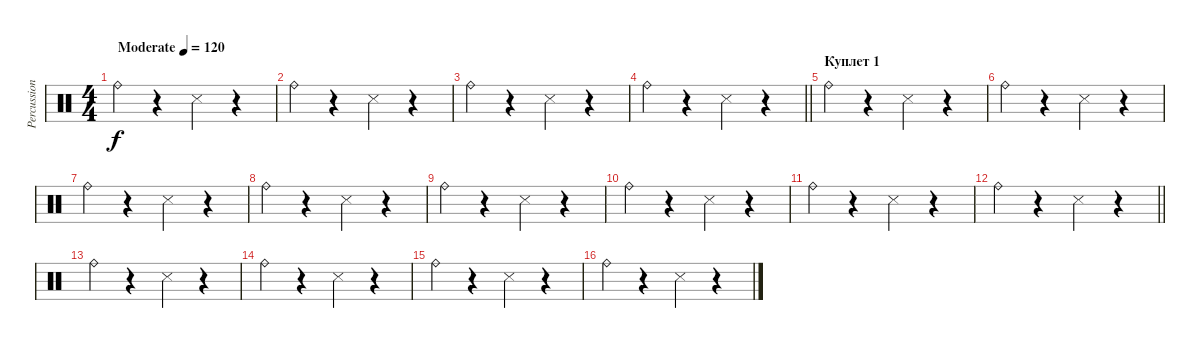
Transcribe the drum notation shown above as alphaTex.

\track ("Percussion" "Percussion") {instrument percussion}
\staff {score}
\articulation defaults
\ts (4 4)
\tempo (120 "Moderate")
\clef neutral
\ks c "Ride (bell)".4{dy f}
r.4 "Snare (side stick) 3".4 r.4 |
"Ride (bell)".4 r.4 "Snare (side stick) 3".4 r.4 |
"Ride (bell)".4 r.4 "Snare (side stick) 3".4 r.4 |
\barLineRight lightlight "Ride (bell)".4
r.4 "Snare (side stick) 3".4 r.4 |
\section ("" "Куплет 1")
"Ride (bell)".4 r.4 "Snare (side stick) 3".4 r.4 |
"Ride (bell)".4 r.4 "Snare (side stick) 3".4 r.4 |
"Ride (bell)".4 r.4 "Snare (side stick) 3".4 r.4 |
"Ride (bell)".4 r.4 "Snare (side stick) 3".4 r.4 |
"Ride (bell)".4 r.4 "Snare (side stick) 3".4 r.4 |
"Ride (bell)".4 r.4 "Snare (side stick) 3".4 r.4 |
"Ride (bell)".4 r.4 "Snare (side stick) 3".4 r.4 |
\barLineRight lightlight "Ride (bell)".4
r.4 "Snare (side stick) 3".4 r.4 |
"Ride (bell)".4 r.4 "Snare (side stick) 3".4 r.4 |
"Ride (bell)".4 r.4 "Snare (side stick) 3".4 r.4 |
"Ride (bell)".4 r.4 "Snare (side stick) 3".4 r.4 |
"Ride (bell)".4 r.4 "Snare (side stick) 3".4 r.4
